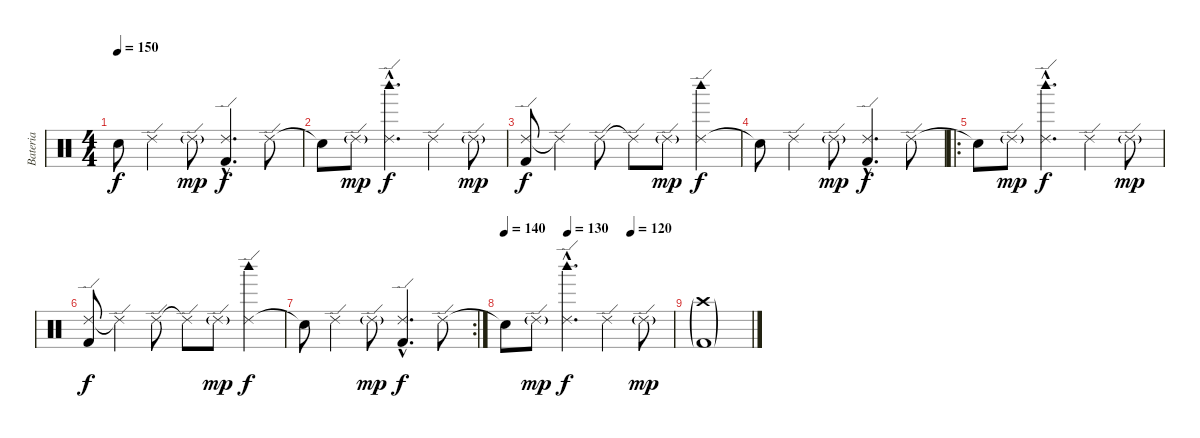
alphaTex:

\track ("Bateria" "Bateria") {instrument percussion}
\staff {score}
\articulation defaults
\ts (4 4)
\tempo 150
\clef neutral
\ks c "Snare (hit)"{t}.8{dy f} "Ride (edge) 2".4 "Ride (edge) 2"{g}.8{dy mp}
("Ride (edge) 2"{hac} "Kick (hit) 2"{hac}).4{d dy f} "Ride (edge) 2".8 |
"Snare (hit)"{t}.8 "Ride (edge) 2"{g}.8{dy mp} ("Ride (edge) 2"{hac} "Woodblock high (hit)"{hac}).4{d dy f} "Ride (edge) 2".4 "Ride (edge) 2"{g}.8{dy mp} |
("Ride (edge) 2" "Kick (hit) 2").8{dy f} "Ride (edge) 2"{t}.4 "Ride (edge) 2".8 "Ride (edge) 2"{t}.8 "Ride (edge) 2"{g}.8{dy mp} ("Ride (edge) 2" "Woodblock high (hit)").4{dy f} |
"Snare (hit)"{t}.8 "Ride (edge) 2".4 "Ride (edge) 2"{g}.8{dy mp} ("Ride (edge) 2"{hac} "Kick (hit) 2"{hac}).4{d dy f} "Ride (edge) 2".8 |
\ro "Snare (hit)"{t}.8 "Ride (edge) 2"{g}.8{dy mp}
("Ride (edge) 2"{hac} "Woodblock high (hit)"{hac}).4{d dy f} "Ride (edge) 2".4 "Ride (edge) 2"{g}.8{dy mp} |
("Ride (edge) 2" "Kick (hit) 2").8{dy f} "Ride (edge) 2"{t}.4 "Ride (edge) 2".8 "Ride (edge) 2"{t}.8 "Ride (edge) 2"{g}.8{dy mp} ("Ride (edge) 2" "Woodblock high (hit)").4{dy f} |
\rc 2 "Snare (hit)"{t}.8 "Ride (edge) 2".4 "Ride (edge) 2"{g}.8{dy mp}
("Ride (edge) 2"{hac} "Kick (hit) 2"{hac}).4{d dy f} "Ride (edge) 2".8 |
\tempo 140
\tempo (130 0.375)
\tempo (120 0.75)
"Snare (hit)"{t}.8 "Ride (edge) 2"{g}.8{dy mp} ("Ride (edge) 2"{hac} "Woodblock high (hit)"{hac}).4{d dy f} "Ride (edge) 2".4 "Ride (edge) 2"{g}.8{dy mp} |
("Crash high (hit)"{g} "Kick (hit) 2"{g}).1
